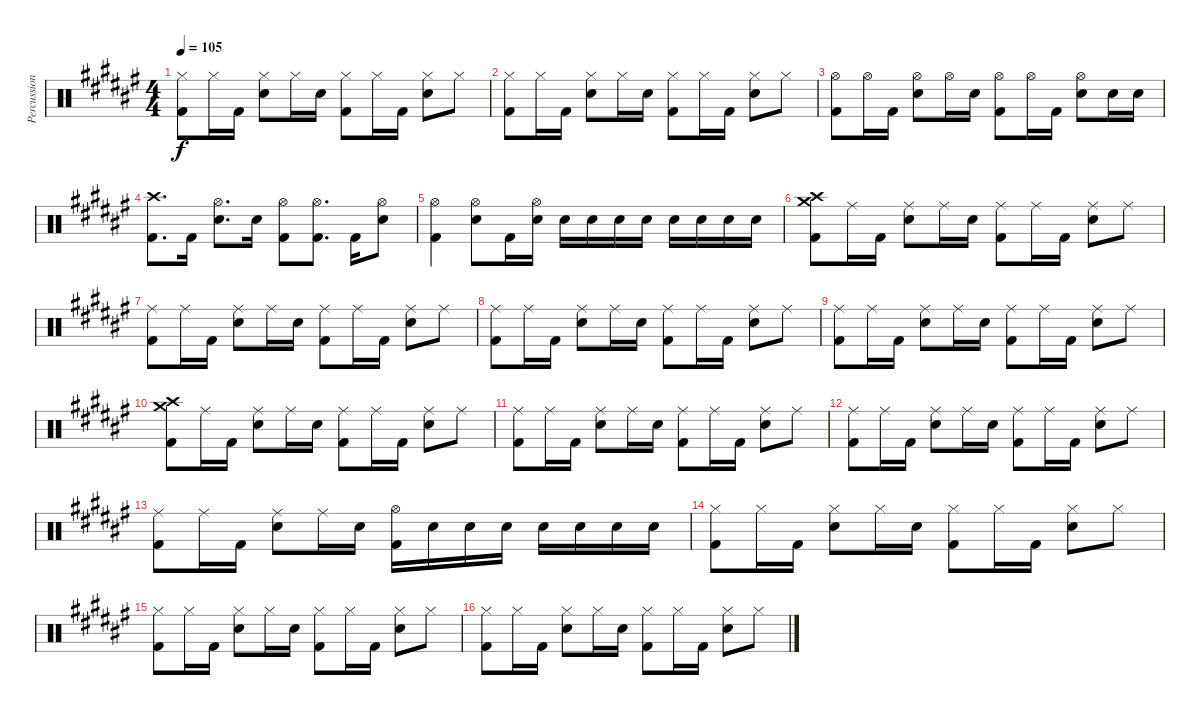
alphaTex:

\track ("Percussion" "Percussion") {instrument percussion}
\staff {score}
\articulation defaults
\ts (4 4)
\tempo 105
\clef neutral
\ks d#minor
("Kick (hit) 2" "Hi-Hat (closed)").8{dy f} "Hi-Hat (closed)".16 "Kick (hit) 2".16 ("Electric Snare (hit)" "Hi-Hat (closed)").8 "Hi-Hat (closed)".16 "Electric Snare (hit)".16 ("Kick (hit) 2" "Hi-Hat (closed)").8 "Hi-Hat (closed)".16 "Kick (hit) 2".16 ("Electric Snare (hit)" "Hi-Hat (closed)").8 "Hi-Hat (closed)".8 |
("Kick (hit) 2" "Hi-Hat (closed)").8 "Hi-Hat (closed)".16 "Kick (hit) 2".16 ("Electric Snare (hit)" "Hi-Hat (closed)").8 "Hi-Hat (closed)".16 "Electric Snare (hit)".16 ("Kick (hit) 2" "Hi-Hat (closed)").8 "Hi-Hat (closed)".16 "Kick (hit) 2".16 ("Electric Snare (hit)" "Hi-Hat (closed)").8 "Hi-Hat (closed)".8 |
("Kick (hit) 2" "Hi-Hat (open)").8 "Hi-Hat (open)".16 "Kick (hit) 2".16 ("Electric Snare (hit)" "Hi-Hat (open)").8 "Hi-Hat (open)".16 "Electric Snare (hit)".16 ("Kick (hit) 2" "Hi-Hat (open)").8 "Hi-Hat (open)".16 "Kick (hit) 2".16 ("Electric Snare (hit)" "Hi-Hat (open)").8 "Electric Snare (hit)".16 "Electric Snare (hit)".16 |
("Kick (hit) 2" "Crash high (hit)").8{d} "Kick (hit) 2".16 ("Electric Snare (hit)" "Hi-Hat (open)").8{d} "Electric Snare (hit)".16 ("Kick (hit) 2" "Hi-Hat (open)").8 ("Kick (hit) 2" "Hi-Hat (open)").8{d} "Kick (hit) 2".16 ("Electric Snare (hit)" "Hi-Hat (open)").8 |
("Kick (hit) 2" "Hi-Hat (open)").4 ("Electric Snare (hit)" "Hi-Hat (open)").8 "Kick (hit) 2".16 ("Electric Snare (hit)" "Hi-Hat (open)").16 "Electric Snare (hit)".16 "Electric Snare (hit)".16 "Electric Snare (hit)".16 "Electric Snare (hit)".16 "Electric Snare (hit)".16 "Electric Snare (hit)".16 "Electric Snare (hit)".16 "Electric Snare (hit)".16 |
("Kick (hit) 2" "Crash medium (hit)" "Crash high (hit)").8 "Ride (middle)".16 "Kick (hit) 2".16 ("Electric Snare (hit)" "Ride (middle)").8 "Ride (middle)".16 "Electric Snare (hit)".16 ("Kick (hit) 2" "Ride (middle)").8 "Ride (middle)".16 "Kick (hit) 2".16 ("Electric Snare (hit)" "Ride (middle)").8 "Ride (middle)".8 |
("Kick (hit) 2" "Ride (middle)").8 "Ride (middle)".16 "Kick (hit) 2".16 ("Electric Snare (hit)" "Ride (middle)").8 "Ride (middle)".16 "Electric Snare (hit)".16 ("Kick (hit) 2" "Ride (middle)").8 "Ride (middle)".16 "Kick (hit) 2".16 ("Electric Snare (hit)" "Ride (middle)").8 "Ride (middle)".8 |
("Kick (hit) 2" "Ride (middle)").8 "Ride (middle)".16 "Kick (hit) 2".16 ("Electric Snare (hit)" "Ride (middle)").8 "Ride (middle)".16 "Electric Snare (hit)".16 ("Kick (hit) 2" "Ride (middle)").8 "Ride (middle)".16 "Kick (hit) 2".16 ("Electric Snare (hit)" "Ride (middle)").8 "Ride (middle)".8 |
("Kick (hit) 2" "Ride (middle)").8 "Ride (middle)".16 "Kick (hit) 2".16 ("Electric Snare (hit)" "Ride (middle)").8 "Ride (middle)".16 "Electric Snare (hit)".16 ("Kick (hit) 2" "Ride (middle)").8 "Ride (middle)".16 "Kick (hit) 2".16 ("Electric Snare (hit)" "Ride (middle)").8 "Ride (middle)".8 |
("Kick (hit) 2" "Crash medium (hit)" "Crash high (hit)").8 "Ride (middle)".16 "Kick (hit) 2".16 ("Electric Snare (hit)" "Ride (middle)").8 "Ride (middle)".16 "Electric Snare (hit)".16 ("Kick (hit) 2" "Ride (middle)").8 "Ride (middle)".16 "Kick (hit) 2".16 ("Electric Snare (hit)" "Ride (middle)").8 "Ride (middle)".8 |
("Kick (hit) 2" "Ride (middle)").8 "Ride (middle)".16 "Kick (hit) 2".16 ("Electric Snare (hit)" "Ride (middle)").8 "Ride (middle)".16 "Electric Snare (hit)".16 ("Kick (hit) 2" "Ride (middle)").8 "Ride (middle)".16 "Kick (hit) 2".16 ("Electric Snare (hit)" "Ride (middle)").8 "Ride (middle)".8 |
("Kick (hit) 2" "Ride (middle)").8 "Ride (middle)".16 "Kick (hit) 2".16 ("Electric Snare (hit)" "Ride (middle)").8 "Ride (middle)".16 "Electric Snare (hit)".16 ("Kick (hit) 2" "Ride (middle)").8 "Ride (middle)".16 "Kick (hit) 2".16 ("Electric Snare (hit)" "Ride (middle)").8 "Ride (middle)".8 |
("Kick (hit) 2" "Ride (middle)").8 "Ride (middle)".16 "Kick (hit) 2".16 ("Electric Snare (hit)" "Ride (middle)").8 "Ride (middle)".16 "Electric Snare (hit)".16 ("Kick (hit) 2" "Hi-Hat (open)").16 "Electric Snare (hit)".16 "Electric Snare (hit)".16 "Electric Snare (hit)".16 "Electric Snare (hit)".16 "Electric Snare (hit)".16 "Electric Snare (hit)".16 "Electric Snare (hit)".16 |
("Kick (hit) 2" "Hi-Hat (closed)").8 "Hi-Hat (closed)".16 "Kick (hit) 2".16 ("Electric Snare (hit)" "Hi-Hat (closed)").8 "Hi-Hat (closed)".16 "Electric Snare (hit)".16 ("Kick (hit) 2" "Hi-Hat (closed)").8 "Hi-Hat (closed)".16 "Kick (hit) 2".16 ("Electric Snare (hit)" "Hi-Hat (closed)").8 "Hi-Hat (closed)".8 |
("Kick (hit) 2" "Hi-Hat (closed)").8 "Hi-Hat (closed)".16 "Kick (hit) 2".16 ("Electric Snare (hit)" "Hi-Hat (closed)").8 "Hi-Hat (closed)".16 "Electric Snare (hit)".16 ("Kick (hit) 2" "Hi-Hat (closed)").8 "Hi-Hat (closed)".16 "Kick (hit) 2".16 ("Electric Snare (hit)" "Hi-Hat (closed)").8 "Hi-Hat (closed)".8 |
("Kick (hit) 2" "Hi-Hat (closed)").8 "Hi-Hat (closed)".16 "Kick (hit) 2".16 ("Electric Snare (hit)" "Hi-Hat (closed)").8 "Hi-Hat (closed)".16 "Electric Snare (hit)".16 ("Kick (hit) 2" "Hi-Hat (closed)").8 "Hi-Hat (closed)".16 "Kick (hit) 2".16 ("Electric Snare (hit)" "Hi-Hat (closed)").8 "Hi-Hat (closed)".8
